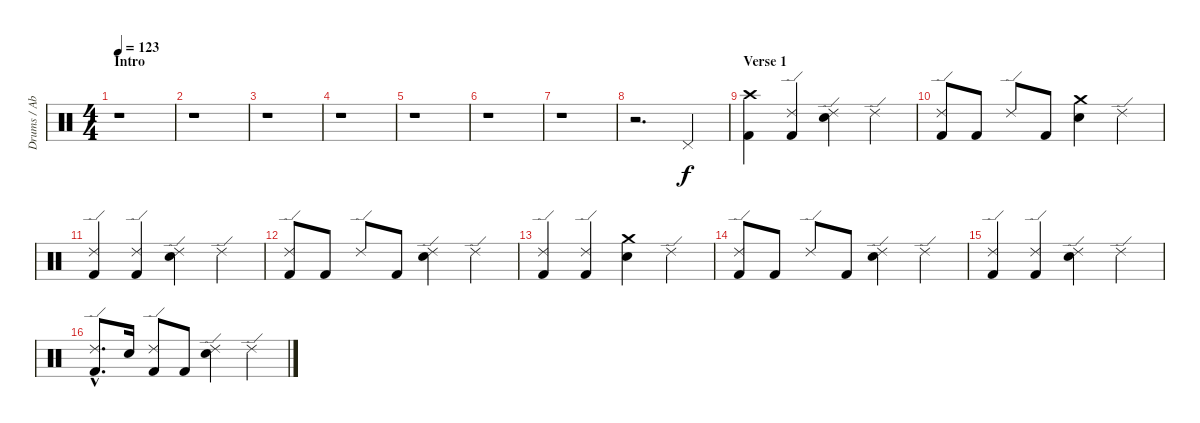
\track ("Drums / Abe Cunningham" "Drums / Ab") {instrument percussion}
\staff {score}
\articulation defaults
\ts (4 4)
\section ("" "Intro")
\tempo 123
\clef neutral
\ks c
r.1{dy f} |
r.1 |
r.1 |
r.1 |
r.1 |
r.1 |
r.1 |
r.2{d} "Pedal Hi-Hat (hit)".4 |
\section ("" "Verse 1")
("Crash high (hit)" "Kick (hit) 2").4 ("Ride (edge) 2" "Kick (hit) 2").4 ("Ride (edge) 2" "Electric Snare (hit)").4 "Ride (edge) 2".4 |
("Ride (edge) 2" "Kick (hit) 2").8 "Kick (hit) 2".8 "Ride (edge) 2".8 "Kick (hit) 2".8 ("Crash medium (hit)" "Electric Snare (hit)").4 "Ride (edge) 2".4 |
("Ride (edge) 2" "Kick (hit) 2").4 ("Ride (edge) 2" "Kick (hit) 2").4 ("Ride (edge) 2" "Electric Snare (hit)").4 "Ride (edge) 2".4 |
("Ride (edge) 2" "Kick (hit) 2").8 "Kick (hit) 2".8 "Ride (edge) 2".8 "Kick (hit) 2".8 ("Ride (edge) 2" "Electric Snare (hit)").4 "Ride (edge) 2".4 |
("Ride (edge) 2" "Kick (hit) 2").4 ("Ride (edge) 2" "Kick (hit) 2").4 ("Crash medium (hit)" "Electric Snare (hit)").4 "Ride (edge) 2".4 |
("Ride (edge) 2" "Kick (hit) 2").8 "Kick (hit) 2".8 "Ride (edge) 2".8 "Kick (hit) 2".8 ("Ride (edge) 2" "Electric Snare (hit)").4 "Ride (edge) 2".4 |
("Ride (edge) 2" "Kick (hit) 2").4 ("Ride (edge) 2" "Kick (hit) 2").4 ("Ride (edge) 2" "Electric Snare (hit)").4 "Ride (edge) 2".4 |
("Ride (edge) 2"{hac} "Kick (hit) 2"{hac}).8{d} "Electric Snare (hit)".16 ("Ride (edge) 2" "Kick (hit) 2").8 "Kick (hit) 2".8 ("Ride (edge) 2" "Electric Snare (hit)").4 "Ride (edge) 2".4
